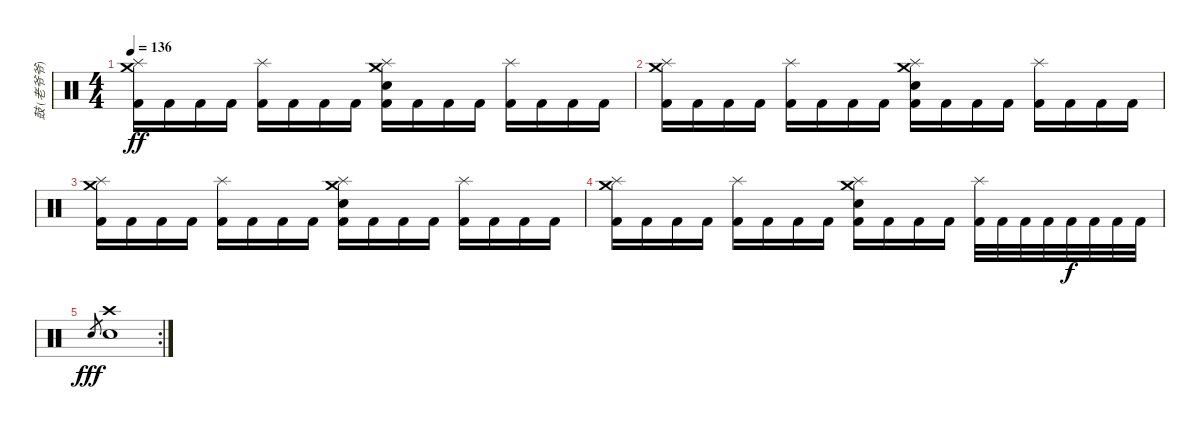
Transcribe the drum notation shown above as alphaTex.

\track ("鼓 (老爷爷)" "鼓 (老爷爷)") {instrument percussion}
\staff {score}
\articulation defaults
\ts (4 4)
\tempo 136
\clef neutral
\ks c
("Crash medium (hit)" "Splash (hit)" "Kick (hit) 2").16{dy ff} "Kick (hit) 2".16 "Kick (hit) 2".16 "Kick (hit) 2".16 ("Splash (hit)" "Kick (hit) 2").16 "Kick (hit) 2".16 "Kick (hit) 2".16 "Kick (hit) 2".16 ("Crash medium (hit)" "Snare (hit) 2" "Splash (hit)" "Kick (hit) 2").16 "Kick (hit) 2".16 "Kick (hit) 2".16 "Kick (hit) 2".16 ("Splash (hit)" "Kick (hit) 2").16 "Kick (hit) 2".16 "Kick (hit) 2".16 "Kick (hit) 2".16 |
("Crash medium (hit)" "Splash (hit)" "Kick (hit) 2").16 "Kick (hit) 2".16 "Kick (hit) 2".16 "Kick (hit) 2".16 ("Splash (hit)" "Kick (hit) 2").16 "Kick (hit) 2".16 "Kick (hit) 2".16 "Kick (hit) 2".16 ("Crash medium (hit)" "Snare (hit) 2" "Splash (hit)" "Kick (hit) 2").16 "Kick (hit) 2".16 "Kick (hit) 2".16 "Kick (hit) 2".16 ("Splash (hit)" "Kick (hit) 2").16 "Kick (hit) 2".16 "Kick (hit) 2".16 "Kick (hit) 2".16 |
("Crash medium (hit)" "Splash (hit)" "Kick (hit) 2").16 "Kick (hit) 2".16 "Kick (hit) 2".16 "Kick (hit) 2".16 ("Splash (hit)" "Kick (hit) 2").16 "Kick (hit) 2".16 "Kick (hit) 2".16 "Kick (hit) 2".16 ("Crash medium (hit)" "Snare (hit) 2" "Splash (hit)" "Kick (hit) 2").16 "Kick (hit) 2".16 "Kick (hit) 2".16 "Kick (hit) 2".16 ("Splash (hit)" "Kick (hit) 2").16 "Kick (hit) 2".16 "Kick (hit) 2".16 "Kick (hit) 2".16 |
("Crash medium (hit)" "Splash (hit)" "Kick (hit) 2").16 "Kick (hit) 2".16 "Kick (hit) 2".16 "Kick (hit) 2".16 ("Splash (hit)" "Kick (hit) 2").16 "Kick (hit) 2".16 "Kick (hit) 2".16 "Kick (hit) 2".16 ("Crash medium (hit)" "Snare (hit) 2" "Splash (hit)" "Kick (hit) 2").16 "Kick (hit) 2".16 "Kick (hit) 2".16 "Kick (hit) 2".16 ("Splash (hit)" "Kick (hit) 2").32 "Kick (hit) 2".32 "Kick (hit) 2".32 "Kick (hit) 2".32 "Kick (hit) 2".32{dy f} "Kick (hit) 2".32 "Kick (hit) 2".32 "Kick (hit) 2".32 |
\rc 2 "Snare (hit) 2".8{gr dy fff}
("Crash high (hit)" "Snare (hit) 2").1
